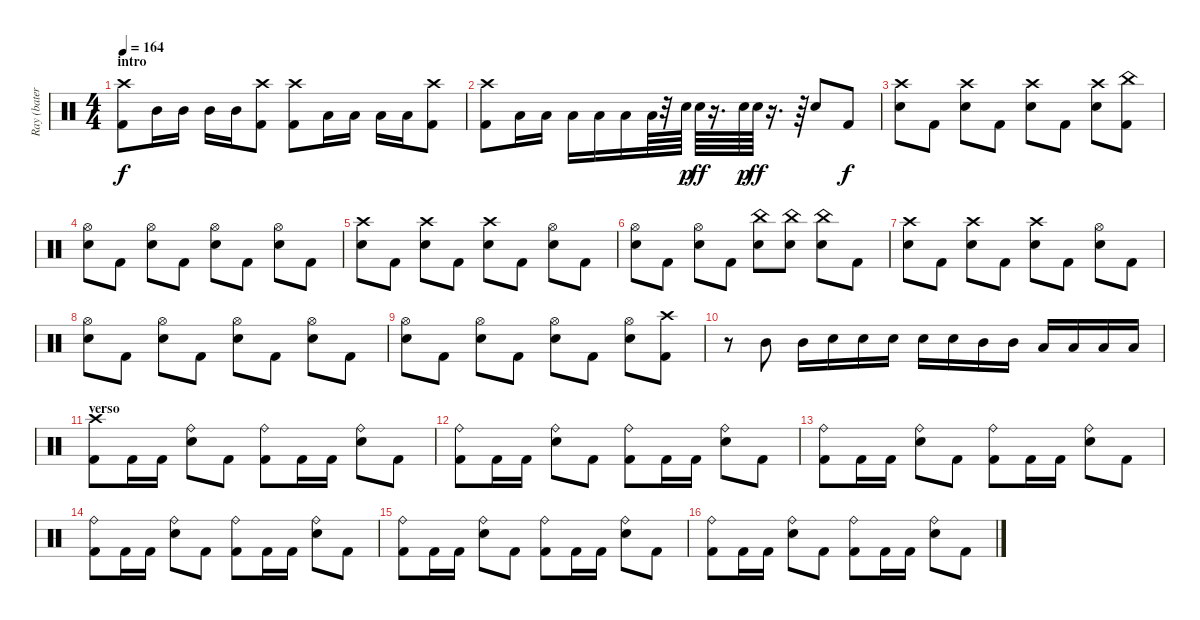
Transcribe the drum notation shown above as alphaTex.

\track ("Ray (batería)" "Ray (bater") {instrument percussion}
\staff {score}
\articulation defaults
\ts (4 4)
\section ("" "intro")
\tempo 164
\clef neutral
\ks c
("Crash high (hit)" "Kick (hit) 2").8{dy f} "Mid Tom (hit)".16 "Mid Tom (hit)".16 "Mid Tom (hit)".16 "Mid Tom (hit)".16 ("Crash high (hit)" "Kick (hit) 2").8 ("Crash high (hit)" "Kick (hit) 2").8 "Low Tom (hit)".16 "Low Tom (hit)".16 "Low Tom (hit)".16 "Low Tom (hit)".16 ("Crash high (hit)" "Kick (hit) 2").8 |
("Crash high (hit)" "Kick (hit) 2").8 "Low Floor Tom (hit)".16 "Low Floor Tom (hit)".16 "Low Floor Tom (hit)".16 "Low Floor Tom (hit)".16 "Low Floor Tom (hit)".16 "Low Floor Tom (hit)".64 r.32 "Snare (hit) 2".64{dy p} "Snare (hit) 2".64{dy ff} r.16{d} "Snare (hit) 2".64{dy p} "Snare (hit) 2".64{dy ff} r.16{d} r.64 "Snare (hit) 2".8 "Kick (hit) 2".8{dy f} |
\section ("" "")
("Crash high (hit)" "Snare (hit) 2").8 "Kick (hit) 2".8 ("Crash high (hit)" "Snare (hit) 2").8 "Kick (hit) 2".8 ("Crash high (hit)" "Snare (hit) 2").8 "Kick (hit) 2".8 ("Crash high (hit)" "Snare (hit) 2").8 ("China (hit)" "Kick (hit) 2").8 |
("Hi-Hat (open)" "Snare (hit) 2").8 "Kick (hit) 2".8 ("Hi-Hat (open)" "Snare (hit) 2").8 "Kick (hit) 2".8 ("Hi-Hat (open)" "Snare (hit) 2").8 "Kick (hit) 2".8 ("Hi-Hat (open)" "Snare (hit) 2").8 "Kick (hit) 2".8 |
("Crash high (hit)" "Snare (hit) 2").8 "Kick (hit) 2".8 ("Crash high (hit)" "Snare (hit) 2").8 "Kick (hit) 2".8 ("Crash high (hit)" "Snare (hit) 2").8 "Kick (hit) 2".8 ("Hi-Hat (open)" "Snare (hit) 2").8 "Kick (hit) 2".8 |
("Hi-Hat (open)" "Snare (hit) 2").8 "Kick (hit) 2".8 ("Hi-Hat (open)" "Snare (hit) 2").8 "Kick (hit) 2".8 ("China (hit)" "Snare (hit) 2").8 ("China (hit)" "Snare (hit) 2").8 ("China (hit)" "Snare (hit) 2").8 "Kick (hit) 2".8 |
("Crash high (hit)" "Snare (hit) 2").8 "Kick (hit) 2".8 ("Crash high (hit)" "Snare (hit) 2").8 "Kick (hit) 2".8 ("Crash high (hit)" "Snare (hit) 2").8 "Kick (hit) 2".8 ("Hi-Hat (open)" "Snare (hit) 2").8 "Kick (hit) 2".8 |
("Hi-Hat (open)" "Snare (hit) 2").8 "Kick (hit) 2".8 ("Hi-Hat (open)" "Snare (hit) 2").8 "Kick (hit) 2".8 ("Hi-Hat (open)" "Snare (hit) 2").8 "Kick (hit) 2".8 ("Hi-Hat (open)" "Snare (hit) 2").8 "Kick (hit) 2".8 |
("Hi-Hat (open)" "Snare (hit) 2").8 "Kick (hit) 2".8 ("Hi-Hat (open)" "Snare (hit) 2").8 "Kick (hit) 2".8 ("Hi-Hat (open)" "Snare (hit) 2").8 "Kick (hit) 2".8 ("Hi-Hat (open)" "Snare (hit) 2").8 ("Crash high (hit)" "Kick (hit) 2").8 |
r.8 "Mid Tom (hit)".8 "Mid Tom (hit)".16 "Snare (hit) 2".16 "Snare (hit) 2".16 "Snare (hit) 2".16 "Snare (hit) 2".16 "Snare (hit) 2".16 "Mid Tom (hit)".16 "Mid Tom (hit)".16 "Low Tom (hit)".16 "Low Tom (hit)".16 "Low Floor Tom (hit)".16 "Low Floor Tom (hit)".16 |
\section ("" "verso")
("Crash high (hit)" "Kick (hit) 2").8 "Kick (hit) 2".16 "Kick (hit) 2".16 ("Ride (bell)" "Snare (hit) 2").8 "Kick (hit) 2".8 ("Ride (bell)" "Kick (hit) 2").8 "Kick (hit) 2".16 "Kick (hit) 2".16 ("Ride (bell)" "Snare (hit) 2").8 "Kick (hit) 2".8 |
("Ride (bell)" "Kick (hit) 2").8 "Kick (hit) 2".16 "Kick (hit) 2".16 ("Ride (bell)" "Snare (hit) 2").8 "Kick (hit) 2".8 ("Ride (bell)" "Kick (hit) 2").8 "Kick (hit) 2".16 "Kick (hit) 2".16 ("Ride (bell)" "Snare (hit) 2").8 "Kick (hit) 2".8 |
("Ride (bell)" "Kick (hit) 2").8 "Kick (hit) 2".16 "Kick (hit) 2".16 ("Ride (bell)" "Snare (hit) 2").8 "Kick (hit) 2".8 ("Ride (bell)" "Kick (hit) 2").8 "Kick (hit) 2".16 "Kick (hit) 2".16 ("Ride (bell)" "Snare (hit) 2").8 "Kick (hit) 2".8 |
("Ride (bell)" "Kick (hit) 2").8 "Kick (hit) 2".16 "Kick (hit) 2".16 ("Ride (bell)" "Snare (hit) 2").8 "Kick (hit) 2".8 ("Ride (bell)" "Kick (hit) 2").8 "Kick (hit) 2".16 "Kick (hit) 2".16 ("Ride (bell)" "Snare (hit) 2").8 "Kick (hit) 2".8 |
("Ride (bell)" "Kick (hit) 2").8 "Kick (hit) 2".16 "Kick (hit) 2".16 ("Ride (bell)" "Snare (hit) 2").8 "Kick (hit) 2".8 ("Ride (bell)" "Kick (hit) 2").8 "Kick (hit) 2".16 "Kick (hit) 2".16 ("Ride (bell)" "Snare (hit) 2").8 "Kick (hit) 2".8 |
("Ride (bell)" "Kick (hit) 2").8 "Kick (hit) 2".16 "Kick (hit) 2".16 ("Ride (bell)" "Snare (hit) 2").8 "Kick (hit) 2".8 ("Ride (bell)" "Kick (hit) 2").8 "Kick (hit) 2".16 "Kick (hit) 2".16 ("Ride (bell)" "Snare (hit) 2").8 "Kick (hit) 2".8
